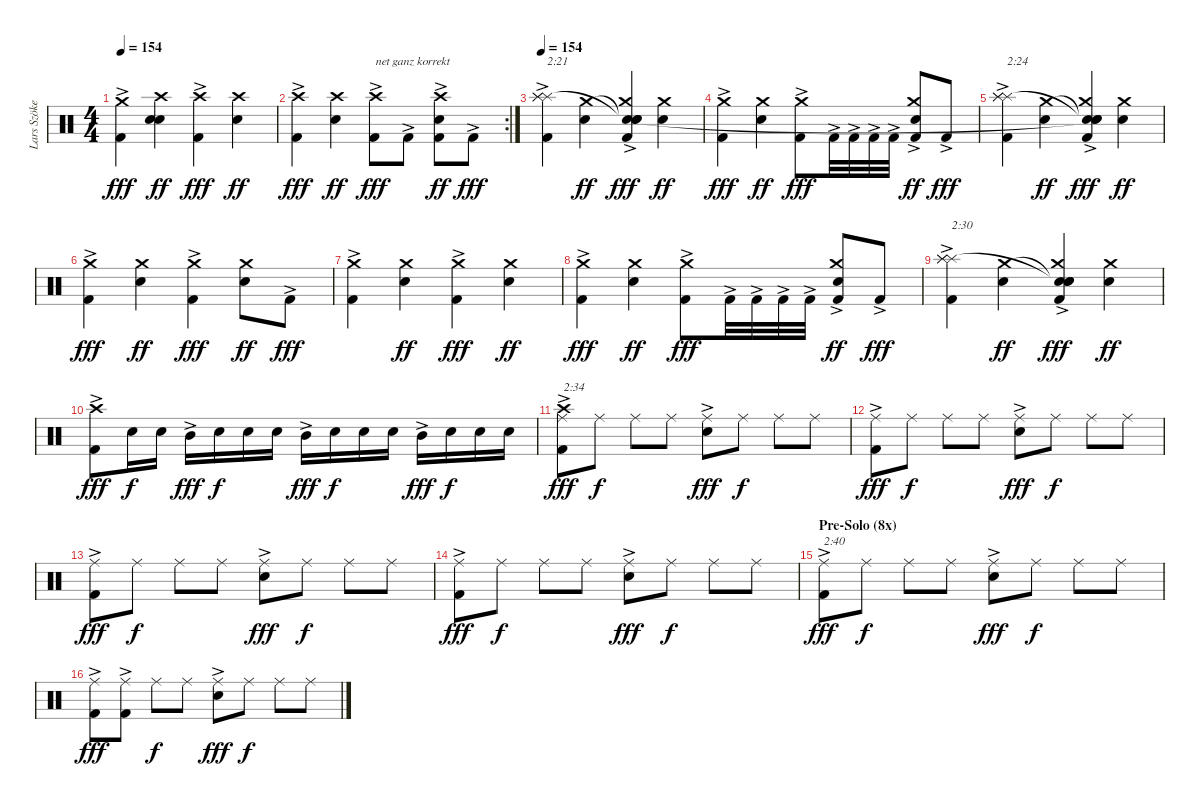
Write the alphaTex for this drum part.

\track ("Lars Szöke" "Lars Szöke") {instrument percussion}
\staff {score}
\articulation defaults
\ts (4 4)
\tempo 154
\clef neutral
\ks c
("Kick (hit) 2"{ac} "Crash medium (hit)"{ac}).4{dy fff} ("Snare (hit) 2" "Crash high (hit)" "Snare (hit)"{t}).4{dy ff} ("Kick (hit) 2"{ac} "Crash high (hit)").4{dy fff} ("Snare (hit) 2" "Crash high (hit)").4{dy ff} |
\rc 2
("Kick (hit) 2"{ac} "Crash high (hit)").4{dy fff} ("Snare (hit) 2" "Crash high (hit)").4{dy ff} ("Kick (hit) 2"{ac} "Crash high (hit)").8{txt "net ganz korrekt" dy fff} "Kick (hit) 2"{ac}.8 ("Kick (hit) 2"{ac} "Snare (hit) 2" "Crash high (hit)").8{dy ff} "Kick (hit) 2"{ac}.8{dy fff} |
\tempo 154
("Kick (hit) 2" "Splash (hit)"{ac} "Splash (hit)"{ac} "Splash (hit)"{ac}).4{txt "2:21"} ("Snare (hit) 2" "Crash medium (hit)").4{dy ff} ("Kick (hit) 2"{ac} "Snare (hit)"{t} "Snare (hit)"{t} "Crash medium (hit)" "Snare (hit)").4{dy fff} ("Snare (hit) 2" "Crash medium (hit)").4{dy ff} |
("Kick (hit) 2"{ac} "Crash medium (hit)").4{dy fff} ("Snare (hit) 2" "Crash medium (hit)").4{dy ff} ("Kick (hit) 2"{ac} "Crash medium (hit)").8{dy fff} "Kick (hit) 2"{ac}.32 "Kick (hit) 2"{ac}.32 "Kick (hit) 2"{ac}.32 "Kick (hit) 2"{ac}.32 ("Kick (hit) 2"{ac} "Snare (hit) 2" "Crash medium (hit)").8{dy ff} "Kick (hit) 2"{ac}.8{dy fff} |
("Kick (hit) 2"{ac} "Splash (hit)"{ac} "Splash (hit)"{ac} "Splash (hit)"{ac}).4{txt "2:24"} ("Snare (hit) 2" "Crash medium (hit)").4{dy ff} ("Kick (hit) 2"{ac} "Snare (hit)"{t} "Snare (hit)"{t} "Crash medium (hit)" "Snare (hit)"{t}).4{dy fff} ("Snare (hit) 2" "Crash medium (hit)").4{dy ff} |
("Kick (hit) 2"{ac} "Crash medium (hit)").4{dy fff} ("Snare (hit) 2" "Crash medium (hit)").4{dy ff} ("Kick (hit) 2"{ac} "Crash medium (hit)").4{dy fff} ("Snare (hit) 2" "Crash medium (hit)").8{dy ff} "Kick (hit) 2"{ac}.8{dy fff} |
("Kick (hit) 2"{ac} "Crash medium (hit)").4 ("Snare (hit) 2" "Crash medium (hit)").4{dy ff} ("Kick (hit) 2"{ac} "Crash medium (hit)").4{dy fff} ("Snare (hit) 2" "Crash medium (hit)").4{dy ff} |
("Kick (hit) 2"{ac} "Crash medium (hit)").4{dy fff} ("Snare (hit) 2" "Crash medium (hit)").4{dy ff} ("Kick (hit) 2"{ac} "Crash medium (hit)").8{dy fff} "Kick (hit) 2"{ac}.32 "Kick (hit) 2"{ac}.32 "Kick (hit) 2"{ac}.32 "Kick (hit) 2"{ac}.32 ("Kick (hit) 2"{ac} "Snare (hit) 2" "Crash medium (hit)").8{dy ff} "Kick (hit) 2"{ac}.8{dy fff} |
("Kick (hit) 2"{ac} "Splash (hit)"{ac} "Splash (hit)"{ac} "Splash (hit)"{ac}).4{txt "2:30"} ("Snare (hit) 2" "Crash medium (hit)").4{dy ff} ("Kick (hit) 2"{ac} "Snare (hit)"{t} "Snare (hit)"{t} "Crash medium (hit)" "Snare (hit)").4{dy fff} ("Snare (hit) 2" "Crash medium (hit)").4{dy ff} |
("Kick (hit) 2"{ac} "Crash high (hit)"{ac}).8{dy fff} "Snare (hit) 2".16{dy f} "Snare (hit) 2".16 "Mid Tom (hit)"{ac}.16{dy fff} "Snare (hit) 2".16{dy f} "Snare (hit) 2".16 "Snare (hit) 2".16 "Mid Tom (hit)"{ac}.16{dy fff} "Snare (hit) 2".16{dy f} "Snare (hit) 2".16 "Snare (hit) 2".16 "Mid Tom (hit)"{ac}.16{dy fff} "Snare (hit) 2".16{dy f} "Snare (hit) 2".16 "Snare (hit) 2".16 |
("Kick (hit) 2"{ac} "Ride (middle)" "Crash high (hit)"{ac}).8{txt "2:34" dy fff} "Ride (middle)".8{dy f} "Ride (middle)".8 "Ride (middle)".8 ("Snare (hit) 2"{ac} "Ride (middle)").8{dy fff} "Ride (middle)".8{dy f} "Ride (middle)".8 "Ride (middle)".8 |
("Kick (hit) 2"{ac} "Ride (middle)").8{dy fff} "Ride (middle)".8{dy f} "Ride (middle)".8 "Ride (middle)".8 ("Snare (hit) 2"{ac} "Ride (middle)").8{dy fff} "Ride (middle)".8{dy f} "Ride (middle)".8 "Ride (middle)".8 |
("Kick (hit) 2"{ac} "Ride (middle)").8{dy fff} "Ride (middle)".8{dy f} "Ride (middle)".8 "Ride (middle)".8 ("Snare (hit) 2"{ac} "Ride (middle)").8{dy fff} "Ride (middle)".8{dy f} "Ride (middle)".8 "Ride (middle)".8 |
("Kick (hit) 2"{ac} "Ride (middle)").8{dy fff} "Ride (middle)".8{dy f} "Ride (middle)".8 "Ride (middle)".8 ("Snare (hit) 2"{ac} "Ride (middle)").8{dy fff} "Ride (middle)".8{dy f} "Ride (middle)".8 "Ride (middle)".8 |
\section ("" "Pre-Solo (8x) ")
("Kick (hit) 2"{ac} "Ride (middle)").8{txt "2:40" dy fff} "Ride (middle)".8{dy f} "Ride (middle)".8 "Ride (middle)".8 ("Snare (hit) 2"{ac} "Ride (middle)").8{dy fff} "Ride (middle)".8{dy f} "Ride (middle)".8 "Ride (middle)".8 |
("Kick (hit) 2"{ac} "Ride (middle)").8{dy fff} ("Kick (hit) 2"{ac} "Ride (middle)").8 "Ride (middle)".8{dy f} "Ride (middle)".8 ("Snare (hit) 2"{ac} "Ride (middle)").8{dy fff} "Ride (middle)".8{dy f} "Ride (middle)".8 "Ride (middle)".8
